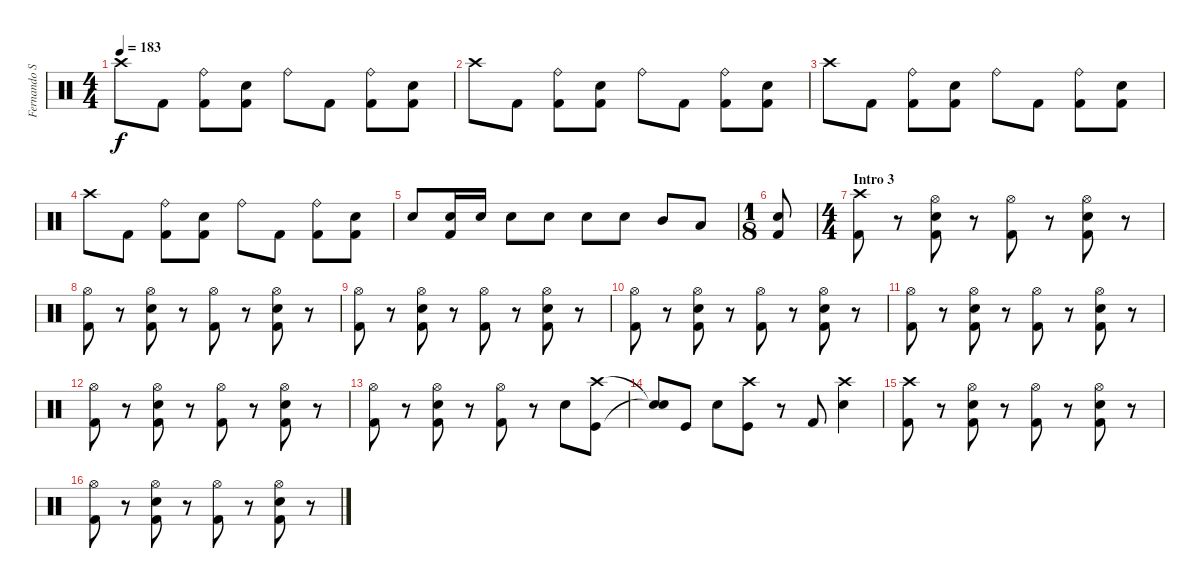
\track ("Fernando Scarcella" "Fernando S") {instrument percussion}
\staff {score}
\articulation defaults
\ts (4 4)
\tempo 183
\clef neutral
\ks c "Crash high (hit)".8{dy f} "Kick (hit) 2".8
("Kick (hit) 2" "Ride (bell)").8 ("Kick (hit) 2" "Snare (hit) 2").8 "Ride (bell)".8 "Kick (hit) 2".8 ("Kick (hit) 2" "Ride (bell)").8 ("Kick (hit) 2" "Snare (hit) 2").8 |
"Crash high (hit)".8 "Kick (hit) 2".8 ("Kick (hit) 2" "Ride (bell)").8 ("Kick (hit) 2" "Snare (hit) 2").8 "Ride (bell)".8 "Kick (hit) 2".8 ("Kick (hit) 2" "Ride (bell)").8 ("Kick (hit) 2" "Snare (hit) 2").8 |
"Crash high (hit)".8 "Kick (hit) 2".8 ("Kick (hit) 2" "Ride (bell)").8 ("Kick (hit) 2" "Snare (hit) 2").8 "Ride (bell)".8 "Kick (hit) 2".8 ("Kick (hit) 2" "Ride (bell)").8 ("Kick (hit) 2" "Snare (hit) 2").8 |
"Crash high (hit)".8 "Kick (hit) 2".8 ("Kick (hit) 2" "Ride (bell)").8 ("Kick (hit) 2" "Snare (hit) 2").8 "Ride (bell)".8 "Kick (hit) 2".8 ("Kick (hit) 2" "Ride (bell)").8 ("Kick (hit) 2" "Snare (hit) 2").8 |
"Snare (hit) 2".8 ("Snare (hit) 2" "Kick (hit) 2").16 "Snare (hit) 2".16 "Snare (hit) 2".8 "Snare (hit) 2".8 "Snare (hit) 2".8 "Snare (hit) 2".8 "Mid Tom (hit)".8 "Low Tom (hit)".8 |
\ts (1 8)
("Snare (hit) 2" "Kick (hit) 2").8 |
\ts (4 4)
\section ("" "Intro 3")
("Crash high (hit)" "Kick (hit) 2").8 r.8 ("Hi-Hat (open)" "Snare (hit) 2" "Kick (hit) 2").8 r.8 ("Hi-Hat (open)" "Kick (hit) 2").8 r.8 ("Hi-Hat (open)" "Snare (hit) 2" "Kick (hit) 2").8 r.8 |
("Hi-Hat (open)" "Kick (hit) 2").8 r.8 ("Hi-Hat (open)" "Snare (hit) 2" "Kick (hit) 2").8 r.8 ("Hi-Hat (open)" "Kick (hit) 2").8 r.8 ("Hi-Hat (open)" "Snare (hit) 2" "Kick (hit) 2").8 r.8 |
("Hi-Hat (open)" "Kick (hit) 2").8 r.8 ("Hi-Hat (open)" "Snare (hit) 2" "Kick (hit) 2").8 r.8 ("Hi-Hat (open)" "Kick (hit) 2").8 r.8 ("Hi-Hat (open)" "Snare (hit) 2" "Kick (hit) 2").8 r.8 |
("Hi-Hat (open)" "Kick (hit) 2").8 r.8 ("Hi-Hat (open)" "Snare (hit) 2" "Kick (hit) 2").8 r.8 ("Hi-Hat (open)" "Kick (hit) 2").8 r.8 ("Hi-Hat (open)" "Snare (hit) 2" "Kick (hit) 2").8 r.8 |
("Hi-Hat (open)" "Kick (hit) 2").8 r.8 ("Hi-Hat (open)" "Snare (hit) 2" "Kick (hit) 2").8 r.8 ("Hi-Hat (open)" "Kick (hit) 2").8 r.8 ("Hi-Hat (open)" "Snare (hit) 2" "Kick (hit) 2").8 r.8 |
("Hi-Hat (open)" "Kick (hit) 2").8 r.8 ("Hi-Hat (open)" "Snare (hit) 2" "Kick (hit) 2").8 r.8 ("Hi-Hat (open)" "Kick (hit) 2").8 r.8 ("Hi-Hat (open)" "Snare (hit) 2" "Kick (hit) 2").8 r.8 |
("Hi-Hat (open)" "Kick (hit) 2").8 r.8 ("Hi-Hat (open)" "Snare (hit) 2" "Kick (hit) 2").8 r.8 ("Hi-Hat (open)" "Kick (hit) 2").8 r.8 "Snare (hit) 2".8 ("Crash high (hit)" "Kick (hit)").8 |
("Snare (hit)"{t} "Snare (hit)"{t}).8 "Kick (hit)".8 "Snare (hit) 2".8 ("Crash high (hit)" "Kick (hit)").8 r.8 "Kick (hit) 2".8 ("Crash high (hit)" "Snare (hit) 2").4 |
("Crash high (hit)" "Kick (hit) 2").8 r.8 ("Hi-Hat (open)" "Snare (hit) 2" "Kick (hit) 2").8 r.8 ("Hi-Hat (open)" "Kick (hit) 2").8 r.8 ("Hi-Hat (open)" "Snare (hit) 2" "Kick (hit) 2").8 r.8 |
("Hi-Hat (open)" "Kick (hit) 2").8 r.8 ("Hi-Hat (open)" "Snare (hit) 2" "Kick (hit) 2").8 r.8 ("Hi-Hat (open)" "Kick (hit) 2").8 r.8 ("Hi-Hat (open)" "Snare (hit) 2" "Kick (hit) 2").8 r.8
